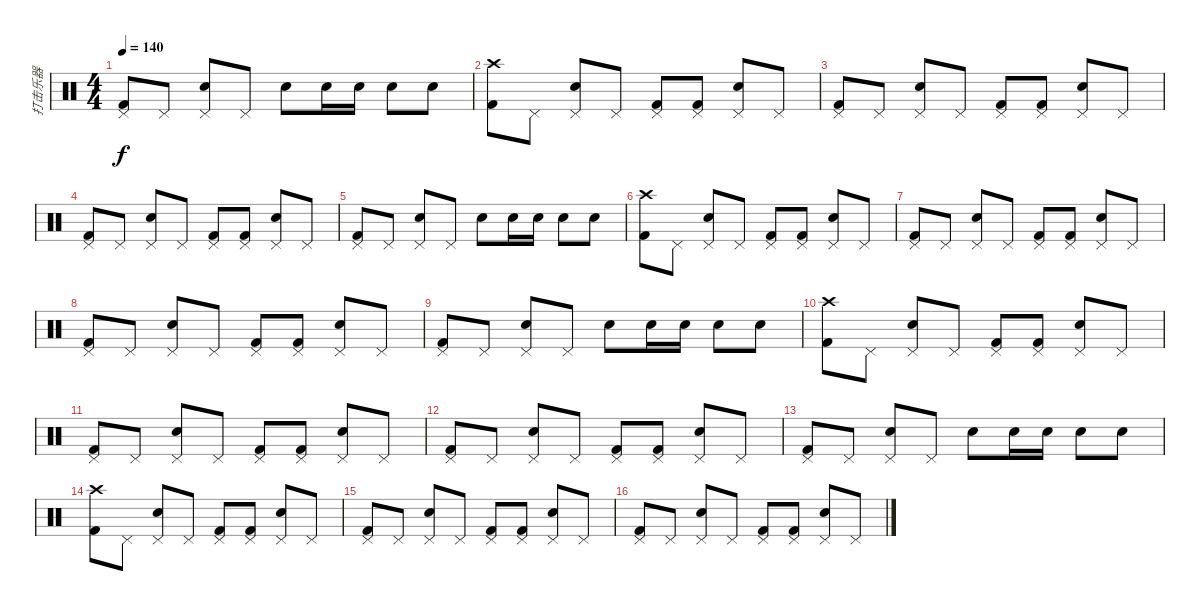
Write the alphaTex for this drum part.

\track ("打击乐器" "打击乐器") {instrument percussion}
\staff {score}
\articulation defaults
\ts (4 4)
\tempo 140
\clef neutral
\ks c
("Pedal Hi-Hat (hit)" "Kick (hit) 2").8{dy f} "Pedal Hi-Hat (hit)".8 ("Pedal Hi-Hat (hit)" "Snare (hit) 2").8 "Pedal Hi-Hat (hit)".8 "Snare (hit) 2".8 "Snare (hit) 2".16 "Snare (hit) 2".16 "Snare (hit) 2".8 "Snare (hit) 2".8 |
("Crash high (hit)" "Kick (hit) 2").8 "Pedal Hi-Hat (hit)".8 ("Pedal Hi-Hat (hit)" "Snare (hit) 2").8 "Pedal Hi-Hat (hit)".8 ("Pedal Hi-Hat (hit)" "Kick (hit) 2").8 ("Pedal Hi-Hat (hit)" "Kick (hit) 2").8 ("Pedal Hi-Hat (hit)" "Snare (hit) 2").8 "Pedal Hi-Hat (hit)".8 |
("Pedal Hi-Hat (hit)" "Kick (hit) 2").8 "Pedal Hi-Hat (hit)".8 ("Pedal Hi-Hat (hit)" "Snare (hit) 2").8 "Pedal Hi-Hat (hit)".8 ("Pedal Hi-Hat (hit)" "Kick (hit) 2").8 ("Pedal Hi-Hat (hit)" "Kick (hit) 2").8 ("Pedal Hi-Hat (hit)" "Snare (hit) 2").8 "Pedal Hi-Hat (hit)".8 |
("Pedal Hi-Hat (hit)" "Kick (hit) 2").8 "Pedal Hi-Hat (hit)".8 ("Pedal Hi-Hat (hit)" "Snare (hit) 2").8 "Pedal Hi-Hat (hit)".8 ("Pedal Hi-Hat (hit)" "Kick (hit) 2").8 ("Pedal Hi-Hat (hit)" "Kick (hit) 2").8 ("Pedal Hi-Hat (hit)" "Snare (hit) 2").8 "Pedal Hi-Hat (hit)".8 |
("Pedal Hi-Hat (hit)" "Kick (hit) 2").8 "Pedal Hi-Hat (hit)".8 ("Pedal Hi-Hat (hit)" "Snare (hit) 2").8 "Pedal Hi-Hat (hit)".8 "Snare (hit) 2".8 "Snare (hit) 2".16 "Snare (hit) 2".16 "Snare (hit) 2".8 "Snare (hit) 2".8 |
("Crash high (hit)" "Kick (hit) 2").8 "Pedal Hi-Hat (hit)".8 ("Pedal Hi-Hat (hit)" "Snare (hit) 2").8 "Pedal Hi-Hat (hit)".8 ("Pedal Hi-Hat (hit)" "Kick (hit) 2").8 ("Pedal Hi-Hat (hit)" "Kick (hit) 2").8 ("Pedal Hi-Hat (hit)" "Snare (hit) 2").8 "Pedal Hi-Hat (hit)".8 |
("Pedal Hi-Hat (hit)" "Kick (hit) 2").8 "Pedal Hi-Hat (hit)".8 ("Pedal Hi-Hat (hit)" "Snare (hit) 2").8 "Pedal Hi-Hat (hit)".8 ("Pedal Hi-Hat (hit)" "Kick (hit) 2").8 ("Pedal Hi-Hat (hit)" "Kick (hit) 2").8 ("Pedal Hi-Hat (hit)" "Snare (hit) 2").8 "Pedal Hi-Hat (hit)".8 |
("Pedal Hi-Hat (hit)" "Kick (hit) 2").8 "Pedal Hi-Hat (hit)".8 ("Pedal Hi-Hat (hit)" "Snare (hit) 2").8 "Pedal Hi-Hat (hit)".8 ("Pedal Hi-Hat (hit)" "Kick (hit) 2").8 ("Pedal Hi-Hat (hit)" "Kick (hit) 2").8 ("Pedal Hi-Hat (hit)" "Snare (hit) 2").8 "Pedal Hi-Hat (hit)".8 |
("Pedal Hi-Hat (hit)" "Kick (hit) 2").8 "Pedal Hi-Hat (hit)".8 ("Pedal Hi-Hat (hit)" "Snare (hit) 2").8 "Pedal Hi-Hat (hit)".8 "Snare (hit) 2".8 "Snare (hit) 2".16 "Snare (hit) 2".16 "Snare (hit) 2".8 "Snare (hit) 2".8 |
("Crash high (hit)" "Kick (hit) 2").8 "Pedal Hi-Hat (hit)".8 ("Pedal Hi-Hat (hit)" "Snare (hit) 2").8 "Pedal Hi-Hat (hit)".8 ("Pedal Hi-Hat (hit)" "Kick (hit) 2").8 ("Pedal Hi-Hat (hit)" "Kick (hit) 2").8 ("Pedal Hi-Hat (hit)" "Snare (hit) 2").8 "Pedal Hi-Hat (hit)".8 |
("Pedal Hi-Hat (hit)" "Kick (hit) 2").8 "Pedal Hi-Hat (hit)".8 ("Pedal Hi-Hat (hit)" "Snare (hit) 2").8 "Pedal Hi-Hat (hit)".8 ("Pedal Hi-Hat (hit)" "Kick (hit) 2").8 ("Pedal Hi-Hat (hit)" "Kick (hit) 2").8 ("Pedal Hi-Hat (hit)" "Snare (hit) 2").8 "Pedal Hi-Hat (hit)".8 |
("Pedal Hi-Hat (hit)" "Kick (hit) 2").8 "Pedal Hi-Hat (hit)".8 ("Pedal Hi-Hat (hit)" "Snare (hit) 2").8 "Pedal Hi-Hat (hit)".8 ("Pedal Hi-Hat (hit)" "Kick (hit) 2").8 ("Pedal Hi-Hat (hit)" "Kick (hit) 2").8 ("Pedal Hi-Hat (hit)" "Snare (hit) 2").8 "Pedal Hi-Hat (hit)".8 |
("Pedal Hi-Hat (hit)" "Kick (hit) 2").8 "Pedal Hi-Hat (hit)".8 ("Pedal Hi-Hat (hit)" "Snare (hit) 2").8 "Pedal Hi-Hat (hit)".8 "Snare (hit) 2".8 "Snare (hit) 2".16 "Snare (hit) 2".16 "Snare (hit) 2".8 "Snare (hit) 2".8 |
("Crash high (hit)" "Kick (hit) 2").8 "Pedal Hi-Hat (hit)".8 ("Pedal Hi-Hat (hit)" "Snare (hit) 2").8 "Pedal Hi-Hat (hit)".8 ("Pedal Hi-Hat (hit)" "Kick (hit) 2").8 ("Pedal Hi-Hat (hit)" "Kick (hit) 2").8 ("Pedal Hi-Hat (hit)" "Snare (hit) 2").8 "Pedal Hi-Hat (hit)".8 |
("Pedal Hi-Hat (hit)" "Kick (hit) 2").8 "Pedal Hi-Hat (hit)".8 ("Pedal Hi-Hat (hit)" "Snare (hit) 2").8 "Pedal Hi-Hat (hit)".8 ("Pedal Hi-Hat (hit)" "Kick (hit) 2").8 ("Pedal Hi-Hat (hit)" "Kick (hit) 2").8 ("Pedal Hi-Hat (hit)" "Snare (hit) 2").8 "Pedal Hi-Hat (hit)".8 |
("Pedal Hi-Hat (hit)" "Kick (hit) 2").8 "Pedal Hi-Hat (hit)".8 ("Pedal Hi-Hat (hit)" "Snare (hit) 2").8 "Pedal Hi-Hat (hit)".8 ("Pedal Hi-Hat (hit)" "Kick (hit) 2").8 ("Pedal Hi-Hat (hit)" "Kick (hit) 2").8 ("Pedal Hi-Hat (hit)" "Snare (hit) 2").8 "Pedal Hi-Hat (hit)".8
